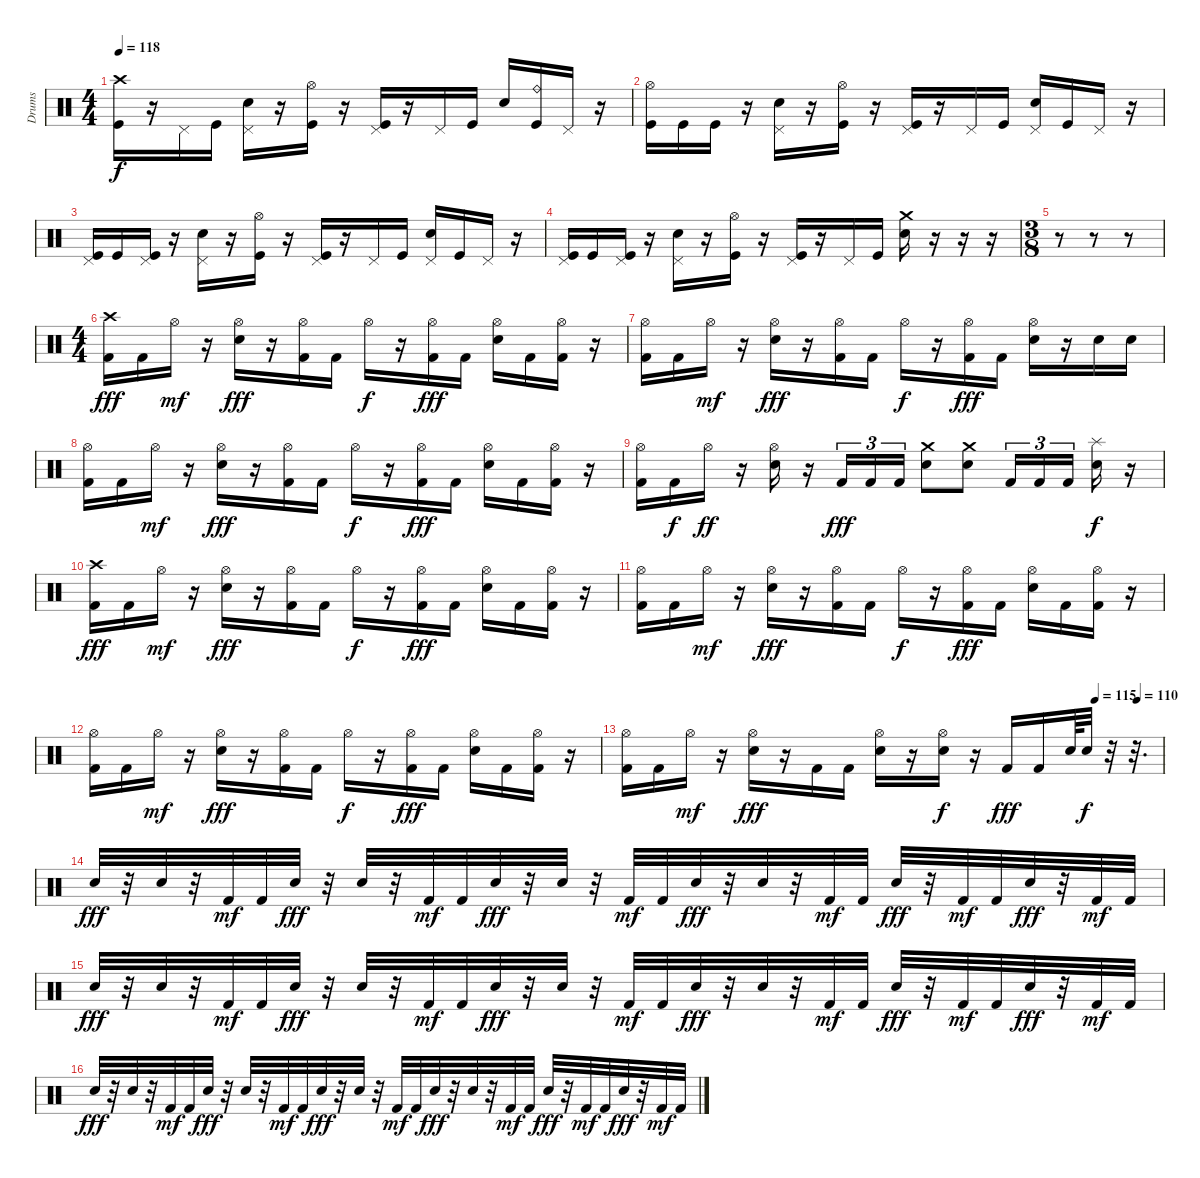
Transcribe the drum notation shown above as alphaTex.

\track ("Drums" "Drums") {instrument percussion}
\staff {score}
\articulation defaults
\ts (4 4)
\tempo 118
\clef neutral
\ks c
("Crash high (hit)" "Kick (hit)").16{dy f} r.16 "Pedal Hi-Hat (hit)".16 "Kick (hit)".16 ("Pedal Hi-Hat (hit)" "Electric Snare (hit)").16 r.16 ("Hi-Hat (open)" "Kick (hit)").16 r.16 ("Pedal Hi-Hat (hit)" "Kick (hit)").16 r.16 "Pedal Hi-Hat (hit)".16 "Kick (hit)".16 "Electric Snare (hit)".16 ("Ride (bell)" "Kick (hit)").16 "Pedal Hi-Hat (hit)".16 r.16 |
("Hi-Hat (open)" "Kick (hit)").16 "Kick (hit)".16 "Kick (hit)".16 r.16 ("Pedal Hi-Hat (hit)" "Electric Snare (hit)").16 r.16 ("Hi-Hat (open)" "Kick (hit)").16 r.16 ("Pedal Hi-Hat (hit)" "Kick (hit)").16 r.16 "Pedal Hi-Hat (hit)".16 "Kick (hit)".16 ("Pedal Hi-Hat (hit)" "Electric Snare (hit)").16 "Kick (hit)".16 "Pedal Hi-Hat (hit)".16 r.16 |
("Pedal Hi-Hat (hit)" "Kick (hit)").16 "Kick (hit)".16 ("Pedal Hi-Hat (hit)" "Kick (hit)").16 r.16 ("Pedal Hi-Hat (hit)" "Electric Snare (hit)").16 r.16 ("Hi-Hat (open)" "Kick (hit)").16 r.16 ("Pedal Hi-Hat (hit)" "Kick (hit)").16 r.16 "Pedal Hi-Hat (hit)".16 "Kick (hit)".16 ("Pedal Hi-Hat (hit)" "Electric Snare (hit)").16 "Kick (hit)".16 "Pedal Hi-Hat (hit)".16 r.16 |
("Pedal Hi-Hat (hit)" "Kick (hit)").16 "Kick (hit)".16 ("Pedal Hi-Hat (hit)" "Kick (hit)").16 r.16 ("Pedal Hi-Hat (hit)" "Electric Snare (hit)").16 r.16 ("Hi-Hat (open)" "Kick (hit)").16 r.16 ("Pedal Hi-Hat (hit)" "Kick (hit)").16 r.16 "Pedal Hi-Hat (hit)".16 "Kick (hit)".16 ("Crash medium (hit)" "Electric Snare (hit)").16 r.16 r.16 r.16 |
\ts (3 8)
r.8 r.8 r.8 |
\ts (4 4)
("Crash high (hit)" "Kick (hit) 2").16{dy fff} "Kick (hit) 2".16 "Hi-Hat (open)".16{dy mf} r.16 ("Hi-Hat (open)" "Electric Snare (hit)").16{dy fff} r.16 ("Hi-Hat (open)" "Kick (hit) 2").16 "Kick (hit) 2".16 "Hi-Hat (open)".16{dy f} r.16 ("Hi-Hat (open)" "Kick (hit) 2").16{dy fff} "Kick (hit) 2".16 ("Hi-Hat (open)" "Electric Snare (hit)").16 "Kick (hit) 2".16 ("Hi-Hat (open)" "Kick (hit) 2").16 r.16 |
("Hi-Hat (open)" "Kick (hit) 2").16 "Kick (hit) 2".16 "Hi-Hat (open)".16{dy mf} r.16 ("Hi-Hat (open)" "Electric Snare (hit)").16{dy fff} r.16 ("Hi-Hat (open)" "Kick (hit) 2").16 "Kick (hit) 2".16 "Hi-Hat (open)".16{dy f} r.16 ("Hi-Hat (open)" "Kick (hit) 2").16{dy fff} "Kick (hit) 2".16 ("Hi-Hat (open)" "Electric Snare (hit)").16 r.16 "Electric Snare (hit)".16 "Electric Snare (hit)".16 |
("Hi-Hat (open)" "Kick (hit) 2").16 "Kick (hit) 2".16 "Hi-Hat (open)".16{dy mf} r.16 ("Hi-Hat (open)" "Electric Snare (hit)").16{dy fff} r.16 ("Hi-Hat (open)" "Kick (hit) 2").16 "Kick (hit) 2".16 "Hi-Hat (open)".16{dy f} r.16 ("Hi-Hat (open)" "Kick (hit) 2").16{dy fff} "Kick (hit) 2".16 ("Hi-Hat (open)" "Electric Snare (hit)").16 "Kick (hit) 2".16 ("Hi-Hat (open)" "Kick (hit) 2").16 r.16 |
("Hi-Hat (open)" "Kick (hit) 2").16 "Kick (hit) 2".16{dy f} "Hi-Hat (open)".16{dy ff} r.16 ("Hi-Hat (open)" "Electric Snare (hit)").16 r.16 "Kick (hit) 2".16{tu (3 2) dy fff} "Kick (hit) 2".16{tu (3 2)} "Kick (hit) 2".16{tu (3 2)} ("Crash medium (hit)" "Electric Snare (hit)").8 ("Crash medium (hit)" "Electric Snare (hit)").8 "Kick (hit) 2".16{tu (3 2)} "Kick (hit) 2".16{tu (3 2)} "Kick (hit) 2".16{tu (3 2)} ("Splash (hit)" "Electric Snare (hit)").16{dy f} r.16 |
("Crash high (hit)" "Kick (hit) 2").16{dy fff} "Kick (hit) 2".16 "Hi-Hat (open)".16{dy mf} r.16 ("Hi-Hat (open)" "Electric Snare (hit)").16{dy fff} r.16 ("Hi-Hat (open)" "Kick (hit) 2").16 "Kick (hit) 2".16 "Hi-Hat (open)".16{dy f} r.16 ("Hi-Hat (open)" "Kick (hit) 2").16{dy fff} "Kick (hit) 2".16 ("Hi-Hat (open)" "Electric Snare (hit)").16 "Kick (hit) 2".16 ("Hi-Hat (open)" "Kick (hit) 2").16 r.16 |
("Hi-Hat (open)" "Kick (hit) 2").16 "Kick (hit) 2".16 "Hi-Hat (open)".16{dy mf} r.16 ("Hi-Hat (open)" "Electric Snare (hit)").16{dy fff} r.16 ("Hi-Hat (open)" "Kick (hit) 2").16 "Kick (hit) 2".16 "Hi-Hat (open)".16{dy f} r.16 ("Hi-Hat (open)" "Kick (hit) 2").16{dy fff} "Kick (hit) 2".16 ("Hi-Hat (open)" "Electric Snare (hit)").16 "Kick (hit) 2".16 ("Hi-Hat (open)" "Kick (hit) 2").16 r.16 |
("Hi-Hat (open)" "Kick (hit) 2").16 "Kick (hit) 2".16 "Hi-Hat (open)".16{dy mf} r.16 ("Hi-Hat (open)" "Electric Snare (hit)").16{dy fff} r.16 ("Hi-Hat (open)" "Kick (hit) 2").16 "Kick (hit) 2".16 "Hi-Hat (open)".16{dy f} r.16 ("Hi-Hat (open)" "Kick (hit) 2").16{dy fff} "Kick (hit) 2".16 ("Hi-Hat (open)" "Electric Snare (hit)").16 "Kick (hit) 2".16 ("Hi-Hat (open)" "Kick (hit) 2").16 r.16 |
\tempo (115 0.875)
\tempo (110 0.953125)
("Hi-Hat (open)" "Kick (hit) 2").16 "Kick (hit) 2".16 "Hi-Hat (open)".16{dy mf} r.16 ("Hi-Hat (open)" "Electric Snare (hit)").16{dy fff} r.16 "Kick (hit) 2".16 "Kick (hit) 2".16 ("Hi-Hat (open)" "Electric Snare (hit)").16 r.16 ("Hi-Hat (open)" "Electric Snare (hit)").16{dy f} r.16 "Kick (hit) 2".16{dy fff} "Kick (hit) 2".16 "Electric Snare (hit)".64 "Electric Snare (hit)".32{dy f} r.32 r.32{d} |
"Electric Snare (hit)".32{dy fff} r.32 "Electric Snare (hit)".32 r.32 "Kick (hit) 2".32{dy mf} "Kick (hit) 2".32 "Electric Snare (hit)".32{dy fff} r.32 "Electric Snare (hit)".32 r.32 "Kick (hit) 2".32{dy mf} "Kick (hit) 2".32 "Electric Snare (hit)".32{dy fff} r.32 "Electric Snare (hit)".32 r.32 "Kick (hit) 2".32{dy mf} "Kick (hit) 2".32 "Electric Snare (hit)".32{dy fff} r.32 "Electric Snare (hit)".32 r.32 "Kick (hit) 2".32{dy mf} "Kick (hit) 2".32 "Electric Snare (hit)".32{dy fff} r.32 "Kick (hit) 2".32{dy mf} "Kick (hit) 2".32 "Electric Snare (hit)".32{dy fff} r.32 "Kick (hit) 2".32{dy mf} "Kick (hit) 2".32 |
"Electric Snare (hit)".32{dy fff} r.32 "Electric Snare (hit)".32 r.32 "Kick (hit) 2".32{dy mf} "Kick (hit) 2".32 "Electric Snare (hit)".32{dy fff} r.32 "Electric Snare (hit)".32 r.32 "Kick (hit) 2".32{dy mf} "Kick (hit) 2".32 "Electric Snare (hit)".32{dy fff} r.32 "Electric Snare (hit)".32 r.32 "Kick (hit) 2".32{dy mf} "Kick (hit) 2".32 "Electric Snare (hit)".32{dy fff} r.32 "Electric Snare (hit)".32 r.32 "Kick (hit) 2".32{dy mf} "Kick (hit) 2".32 "Electric Snare (hit)".32{dy fff} r.32 "Kick (hit) 2".32{dy mf} "Kick (hit) 2".32 "Electric Snare (hit)".32{dy fff} r.32 "Kick (hit) 2".32{dy mf} "Kick (hit) 2".32 |
"Electric Snare (hit)".32{dy fff} r.32 "Electric Snare (hit)".32 r.32 "Kick (hit) 2".32{dy mf} "Kick (hit) 2".32 "Electric Snare (hit)".32{dy fff} r.32 "Electric Snare (hit)".32 r.32 "Kick (hit) 2".32{dy mf} "Kick (hit) 2".32 "Electric Snare (hit)".32{dy fff} r.32 "Electric Snare (hit)".32 r.32 "Kick (hit) 2".32{dy mf} "Kick (hit) 2".32 "Electric Snare (hit)".32{dy fff} r.32 "Electric Snare (hit)".32 r.32 "Kick (hit) 2".32{dy mf} "Kick (hit) 2".32 "Electric Snare (hit)".32{dy fff} r.32 "Kick (hit) 2".32{dy mf} "Kick (hit) 2".32 "Electric Snare (hit)".32{dy fff} r.32 "Kick (hit) 2".32{dy mf} "Kick (hit) 2".32
